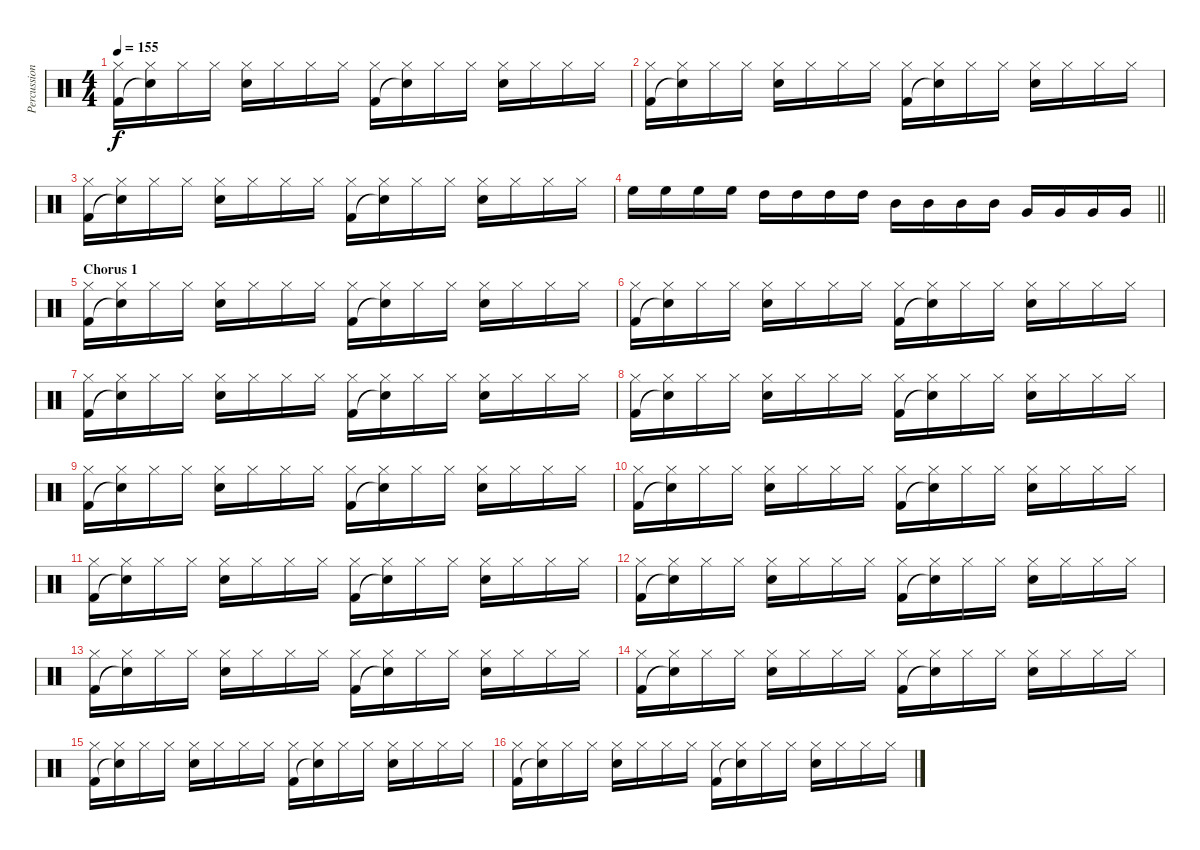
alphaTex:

\track ("Percussion" "Percussion") {instrument percussion}
\staff {score}
\articulation defaults
\ts (4 4)
\tempo 155
\clef neutral
\ks c
("Hi-Hat (closed)" "Kick (hit) 2").16{dy f} ("Hi-Hat (closed)" "Snare (hit)"{t}).16 "Hi-Hat (closed)".16 "Hi-Hat (closed)".16 ("Hi-Hat (closed)" "Snare (hit) 2").16 "Hi-Hat (closed)".16 "Hi-Hat (closed)".16 "Hi-Hat (closed)".16 ("Hi-Hat (closed)" "Kick (hit) 2").16 ("Hi-Hat (closed)" "Snare (hit)"{t}).16 "Hi-Hat (closed)".16 "Hi-Hat (closed)".16 ("Hi-Hat (closed)" "Snare (hit) 2").16 "Hi-Hat (closed)".16 "Hi-Hat (closed)".16 "Hi-Hat (closed)".16 |
("Hi-Hat (closed)" "Kick (hit) 2").16 ("Hi-Hat (closed)" "Snare (hit)"{t}).16 "Hi-Hat (closed)".16 "Hi-Hat (closed)".16 ("Hi-Hat (closed)" "Snare (hit) 2").16 "Hi-Hat (closed)".16 "Hi-Hat (closed)".16 "Hi-Hat (closed)".16 ("Hi-Hat (closed)" "Kick (hit) 2").16 ("Hi-Hat (closed)" "Snare (hit)"{t}).16 "Hi-Hat (closed)".16 "Hi-Hat (closed)".16 ("Hi-Hat (closed)" "Snare (hit) 2").16 "Hi-Hat (closed)".16 "Hi-Hat (closed)".16 "Hi-Hat (closed)".16 |
("Hi-Hat (closed)" "Kick (hit) 2").16 ("Hi-Hat (closed)" "Snare (hit)"{t}).16 "Hi-Hat (closed)".16 "Hi-Hat (closed)".16 ("Hi-Hat (closed)" "Snare (hit) 2").16 "Hi-Hat (closed)".16 "Hi-Hat (closed)".16 "Hi-Hat (closed)".16 ("Hi-Hat (closed)" "Kick (hit) 2").16 ("Hi-Hat (closed)" "Snare (hit)"{t}).16 "Hi-Hat (closed)".16 "Hi-Hat (closed)".16 ("Hi-Hat (closed)" "Snare (hit) 2").16 "Hi-Hat (closed)".16 "Hi-Hat (closed)".16 "Hi-Hat (closed)".16 |
\barLineRight lightlight "High Floor Tom (hit)".16 "High Floor Tom (hit)".16 "High Floor Tom (hit)".16 "High Floor Tom (hit)".16 "High Tom (hit)".16 "High Tom (hit)".16 "High Tom (hit)".16 "High Tom (hit)".16 "Mid Tom (hit)".16 "Mid Tom (hit)".16 "Mid Tom (hit)".16 "Mid Tom (hit)".16 "Very Low Tom (hit)".16 "Very Low Tom (hit)".16 "Very Low Tom (hit)".16 "Very Low Tom (hit)".16
|
\section ("" "Chorus 1")
("Hi-Hat (closed)" "Kick (hit) 2").16 ("Hi-Hat (closed)" "Snare (hit)"{t}).16 "Hi-Hat (closed)".16 "Hi-Hat (closed)".16 ("Hi-Hat (closed)" "Snare (hit) 2").16 "Hi-Hat (closed)".16 "Hi-Hat (closed)".16 "Hi-Hat (closed)".16 ("Hi-Hat (closed)" "Kick (hit) 2").16 ("Hi-Hat (closed)" "Snare (hit)"{t}).16 "Hi-Hat (closed)".16 "Hi-Hat (closed)".16 ("Hi-Hat (closed)" "Snare (hit) 2").16 "Hi-Hat (closed)".16 "Hi-Hat (closed)".16 "Hi-Hat (closed)".16 |
("Hi-Hat (closed)" "Kick (hit) 2").16 ("Hi-Hat (closed)" "Snare (hit)"{t}).16 "Hi-Hat (closed)".16 "Hi-Hat (closed)".16 ("Hi-Hat (closed)" "Snare (hit) 2").16 "Hi-Hat (closed)".16 "Hi-Hat (closed)".16 "Hi-Hat (closed)".16 ("Hi-Hat (closed)" "Kick (hit) 2").16 ("Hi-Hat (closed)" "Snare (hit)"{t}).16 "Hi-Hat (closed)".16 "Hi-Hat (closed)".16 ("Hi-Hat (closed)" "Snare (hit) 2").16 "Hi-Hat (closed)".16 "Hi-Hat (closed)".16 "Hi-Hat (closed)".16 |
("Hi-Hat (closed)" "Kick (hit) 2").16 ("Hi-Hat (closed)" "Snare (hit)"{t}).16 "Hi-Hat (closed)".16 "Hi-Hat (closed)".16 ("Hi-Hat (closed)" "Snare (hit) 2").16 "Hi-Hat (closed)".16 "Hi-Hat (closed)".16 "Hi-Hat (closed)".16 ("Hi-Hat (closed)" "Kick (hit) 2").16 ("Hi-Hat (closed)" "Snare (hit)"{t}).16 "Hi-Hat (closed)".16 "Hi-Hat (closed)".16 ("Hi-Hat (closed)" "Snare (hit) 2").16 "Hi-Hat (closed)".16 "Hi-Hat (closed)".16 "Hi-Hat (closed)".16 |
("Hi-Hat (closed)" "Kick (hit) 2").16 ("Hi-Hat (closed)" "Snare (hit)"{t}).16 "Hi-Hat (closed)".16 "Hi-Hat (closed)".16 ("Hi-Hat (closed)" "Snare (hit) 2").16 "Hi-Hat (closed)".16 "Hi-Hat (closed)".16 "Hi-Hat (closed)".16 ("Hi-Hat (closed)" "Kick (hit) 2").16 ("Hi-Hat (closed)" "Snare (hit)"{t}).16 "Hi-Hat (closed)".16 "Hi-Hat (closed)".16 ("Hi-Hat (closed)" "Snare (hit) 2").16 "Hi-Hat (closed)".16 "Hi-Hat (closed)".16 "Hi-Hat (closed)".16 |
("Hi-Hat (closed)" "Kick (hit) 2").16 ("Hi-Hat (closed)" "Snare (hit)"{t}).16 "Hi-Hat (closed)".16 "Hi-Hat (closed)".16 ("Hi-Hat (closed)" "Snare (hit) 2").16 "Hi-Hat (closed)".16 "Hi-Hat (closed)".16 "Hi-Hat (closed)".16 ("Hi-Hat (closed)" "Kick (hit) 2").16 ("Hi-Hat (closed)" "Snare (hit)"{t}).16 "Hi-Hat (closed)".16 "Hi-Hat (closed)".16 ("Hi-Hat (closed)" "Snare (hit) 2").16 "Hi-Hat (closed)".16 "Hi-Hat (closed)".16 "Hi-Hat (closed)".16 |
("Hi-Hat (closed)" "Kick (hit) 2").16 ("Hi-Hat (closed)" "Snare (hit)"{t}).16 "Hi-Hat (closed)".16 "Hi-Hat (closed)".16 ("Hi-Hat (closed)" "Snare (hit) 2").16 "Hi-Hat (closed)".16 "Hi-Hat (closed)".16 "Hi-Hat (closed)".16 ("Hi-Hat (closed)" "Kick (hit) 2").16 ("Hi-Hat (closed)" "Snare (hit)"{t}).16 "Hi-Hat (closed)".16 "Hi-Hat (closed)".16 ("Hi-Hat (closed)" "Snare (hit) 2").16 "Hi-Hat (closed)".16 "Hi-Hat (closed)".16 "Hi-Hat (closed)".16 |
("Hi-Hat (closed)" "Kick (hit) 2").16 ("Hi-Hat (closed)" "Snare (hit)"{t}).16 "Hi-Hat (closed)".16 "Hi-Hat (closed)".16 ("Hi-Hat (closed)" "Snare (hit) 2").16 "Hi-Hat (closed)".16 "Hi-Hat (closed)".16 "Hi-Hat (closed)".16 ("Hi-Hat (closed)" "Kick (hit) 2").16 ("Hi-Hat (closed)" "Snare (hit)"{t}).16 "Hi-Hat (closed)".16 "Hi-Hat (closed)".16 ("Hi-Hat (closed)" "Snare (hit) 2").16 "Hi-Hat (closed)".16 "Hi-Hat (closed)".16 "Hi-Hat (closed)".16 |
("Hi-Hat (closed)" "Kick (hit) 2").16 ("Hi-Hat (closed)" "Snare (hit)"{t}).16 "Hi-Hat (closed)".16 "Hi-Hat (closed)".16 ("Hi-Hat (closed)" "Snare (hit) 2").16 "Hi-Hat (closed)".16 "Hi-Hat (closed)".16 "Hi-Hat (closed)".16 ("Hi-Hat (closed)" "Kick (hit) 2").16 ("Hi-Hat (closed)" "Snare (hit)"{t}).16 "Hi-Hat (closed)".16 "Hi-Hat (closed)".16 ("Hi-Hat (closed)" "Snare (hit) 2").16 "Hi-Hat (closed)".16 "Hi-Hat (closed)".16 "Hi-Hat (closed)".16 |
("Hi-Hat (closed)" "Kick (hit) 2").16 ("Hi-Hat (closed)" "Snare (hit)"{t}).16 "Hi-Hat (closed)".16 "Hi-Hat (closed)".16 ("Hi-Hat (closed)" "Snare (hit) 2").16 "Hi-Hat (closed)".16 "Hi-Hat (closed)".16 "Hi-Hat (closed)".16 ("Hi-Hat (closed)" "Kick (hit) 2").16 ("Hi-Hat (closed)" "Snare (hit)"{t}).16 "Hi-Hat (closed)".16 "Hi-Hat (closed)".16 ("Hi-Hat (closed)" "Snare (hit) 2").16 "Hi-Hat (closed)".16 "Hi-Hat (closed)".16 "Hi-Hat (closed)".16 |
("Hi-Hat (closed)" "Kick (hit) 2").16 ("Hi-Hat (closed)" "Snare (hit)"{t}).16 "Hi-Hat (closed)".16 "Hi-Hat (closed)".16 ("Hi-Hat (closed)" "Snare (hit) 2").16 "Hi-Hat (closed)".16 "Hi-Hat (closed)".16 "Hi-Hat (closed)".16 ("Hi-Hat (closed)" "Kick (hit) 2").16 ("Hi-Hat (closed)" "Snare (hit)"{t}).16 "Hi-Hat (closed)".16 "Hi-Hat (closed)".16 ("Hi-Hat (closed)" "Snare (hit) 2").16 "Hi-Hat (closed)".16 "Hi-Hat (closed)".16 "Hi-Hat (closed)".16 |
("Hi-Hat (closed)" "Kick (hit) 2").16 ("Hi-Hat (closed)" "Snare (hit)"{t}).16 "Hi-Hat (closed)".16 "Hi-Hat (closed)".16 ("Hi-Hat (closed)" "Snare (hit) 2").16 "Hi-Hat (closed)".16 "Hi-Hat (closed)".16 "Hi-Hat (closed)".16 ("Hi-Hat (closed)" "Kick (hit) 2").16 ("Hi-Hat (closed)" "Snare (hit)"{t}).16 "Hi-Hat (closed)".16 "Hi-Hat (closed)".16 ("Hi-Hat (closed)" "Snare (hit) 2").16 "Hi-Hat (closed)".16 "Hi-Hat (closed)".16 "Hi-Hat (closed)".16 |
("Hi-Hat (closed)" "Kick (hit) 2").16 ("Hi-Hat (closed)" "Snare (hit)"{t}).16 "Hi-Hat (closed)".16 "Hi-Hat (closed)".16 ("Hi-Hat (closed)" "Snare (hit) 2").16 "Hi-Hat (closed)".16 "Hi-Hat (closed)".16 "Hi-Hat (closed)".16 ("Hi-Hat (closed)" "Kick (hit) 2").16 ("Hi-Hat (closed)" "Snare (hit)"{t}).16 "Hi-Hat (closed)".16 "Hi-Hat (closed)".16 ("Hi-Hat (closed)" "Snare (hit) 2").16 "Hi-Hat (closed)".16 "Hi-Hat (closed)".16 "Hi-Hat (closed)".16
